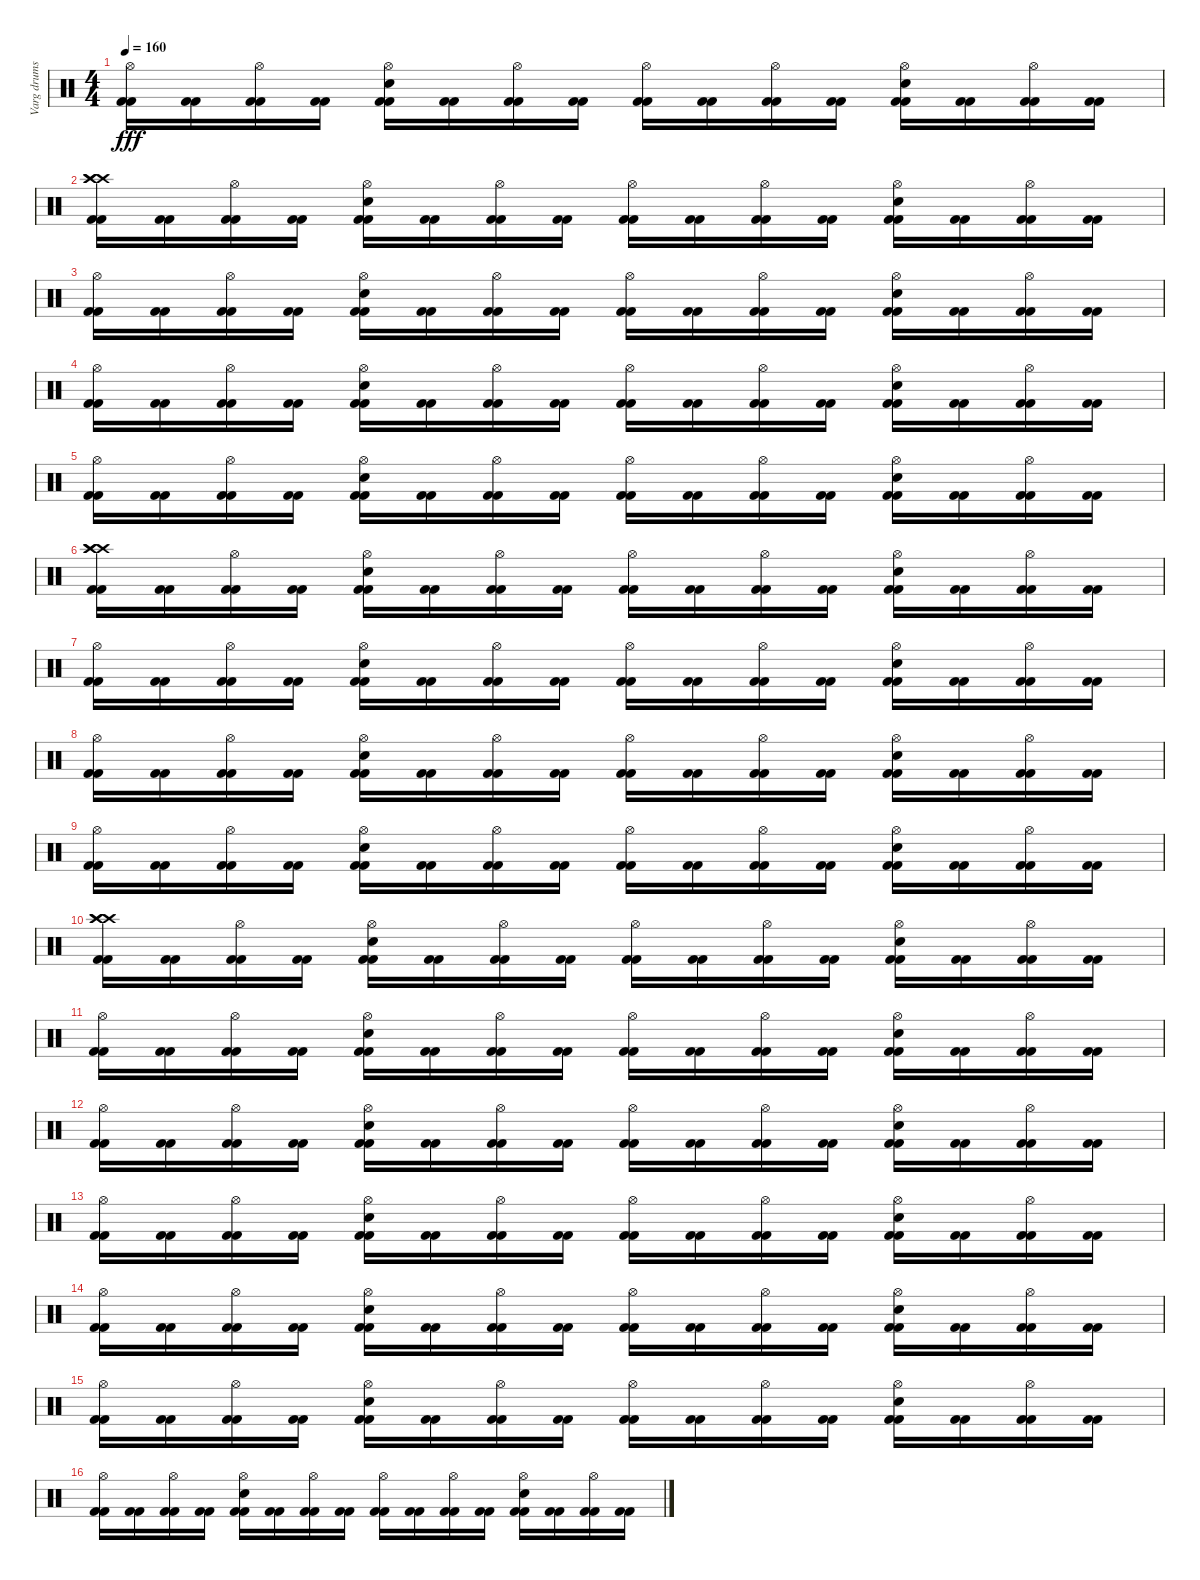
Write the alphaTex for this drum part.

\track ("Varg drums" "Varg drums") {instrument percussion}
\staff {score}
\articulation defaults
\ts (4 4)
\tempo 160
\clef neutral
\ks c
("Hi-Hat (open)" "Kick (hit) 2" "Kick (hit) 2").16{dy fff} ("Kick (hit) 2" "Kick (hit) 2").16 ("Hi-Hat (open)" "Kick (hit) 2" "Kick (hit) 2").16 ("Kick (hit) 2" "Kick (hit) 2").16 ("Hi-Hat (open)" "Electric Snare (hit)" "Kick (hit) 2" "Kick (hit) 2").16 ("Kick (hit) 2" "Kick (hit) 2").16 ("Hi-Hat (open)" "Kick (hit) 2" "Kick (hit) 2").16 ("Kick (hit) 2" "Kick (hit) 2").16 ("Hi-Hat (open)" "Kick (hit) 2" "Kick (hit) 2").16 ("Kick (hit) 2" "Kick (hit) 2").16 ("Hi-Hat (open)" "Kick (hit) 2" "Kick (hit) 2").16 ("Kick (hit) 2" "Kick (hit) 2").16 ("Hi-Hat (open)" "Electric Snare (hit)" "Kick (hit) 2" "Kick (hit) 2").16 ("Kick (hit) 2" "Kick (hit) 2").16 ("Hi-Hat (open)" "Kick (hit) 2" "Kick (hit) 2").16 ("Kick (hit) 2" "Kick (hit) 2").16 |
("Crash high (hit)" "Crash high (hit)" "Crash high (hit)" "Kick (hit) 2" "Kick (hit) 2").16 ("Kick (hit) 2" "Kick (hit) 2").16 ("Hi-Hat (open)" "Kick (hit) 2" "Kick (hit) 2").16 ("Kick (hit) 2" "Kick (hit) 2").16 ("Hi-Hat (open)" "Electric Snare (hit)" "Kick (hit) 2" "Kick (hit) 2").16 ("Kick (hit) 2" "Kick (hit) 2").16 ("Hi-Hat (open)" "Kick (hit) 2" "Kick (hit) 2").16 ("Kick (hit) 2" "Kick (hit) 2").16 ("Hi-Hat (open)" "Kick (hit) 2" "Kick (hit) 2").16 ("Kick (hit) 2" "Kick (hit) 2").16 ("Hi-Hat (open)" "Kick (hit) 2" "Kick (hit) 2").16 ("Kick (hit) 2" "Kick (hit) 2").16 ("Hi-Hat (open)" "Electric Snare (hit)" "Kick (hit) 2" "Kick (hit) 2").16 ("Kick (hit) 2" "Kick (hit) 2").16 ("Hi-Hat (open)" "Kick (hit) 2" "Kick (hit) 2").16 ("Kick (hit) 2" "Kick (hit) 2").16 |
("Hi-Hat (open)" "Kick (hit) 2" "Kick (hit) 2").16 ("Kick (hit) 2" "Kick (hit) 2").16 ("Hi-Hat (open)" "Kick (hit) 2" "Kick (hit) 2").16 ("Kick (hit) 2" "Kick (hit) 2").16 ("Hi-Hat (open)" "Electric Snare (hit)" "Kick (hit) 2" "Kick (hit) 2").16 ("Kick (hit) 2" "Kick (hit) 2").16 ("Hi-Hat (open)" "Kick (hit) 2" "Kick (hit) 2").16 ("Kick (hit) 2" "Kick (hit) 2").16 ("Hi-Hat (open)" "Kick (hit) 2" "Kick (hit) 2").16 ("Kick (hit) 2" "Kick (hit) 2").16 ("Hi-Hat (open)" "Kick (hit) 2" "Kick (hit) 2").16 ("Kick (hit) 2" "Kick (hit) 2").16 ("Hi-Hat (open)" "Electric Snare (hit)" "Kick (hit) 2" "Kick (hit) 2").16 ("Kick (hit) 2" "Kick (hit) 2").16 ("Hi-Hat (open)" "Kick (hit) 2" "Kick (hit) 2").16 ("Kick (hit) 2" "Kick (hit) 2").16 |
("Hi-Hat (open)" "Kick (hit) 2" "Kick (hit) 2").16 ("Kick (hit) 2" "Kick (hit) 2").16 ("Hi-Hat (open)" "Kick (hit) 2" "Kick (hit) 2").16 ("Kick (hit) 2" "Kick (hit) 2").16 ("Hi-Hat (open)" "Electric Snare (hit)" "Kick (hit) 2" "Kick (hit) 2").16 ("Kick (hit) 2" "Kick (hit) 2").16 ("Hi-Hat (open)" "Kick (hit) 2" "Kick (hit) 2").16 ("Kick (hit) 2" "Kick (hit) 2").16 ("Hi-Hat (open)" "Kick (hit) 2" "Kick (hit) 2").16 ("Kick (hit) 2" "Kick (hit) 2").16 ("Hi-Hat (open)" "Kick (hit) 2" "Kick (hit) 2").16 ("Kick (hit) 2" "Kick (hit) 2").16 ("Hi-Hat (open)" "Electric Snare (hit)" "Kick (hit) 2" "Kick (hit) 2").16 ("Kick (hit) 2" "Kick (hit) 2").16 ("Hi-Hat (open)" "Kick (hit) 2" "Kick (hit) 2").16 ("Kick (hit) 2" "Kick (hit) 2").16 |
("Hi-Hat (open)" "Kick (hit) 2" "Kick (hit) 2").16 ("Kick (hit) 2" "Kick (hit) 2").16 ("Hi-Hat (open)" "Kick (hit) 2" "Kick (hit) 2").16 ("Kick (hit) 2" "Kick (hit) 2").16 ("Hi-Hat (open)" "Electric Snare (hit)" "Kick (hit) 2" "Kick (hit) 2").16 ("Kick (hit) 2" "Kick (hit) 2").16 ("Hi-Hat (open)" "Kick (hit) 2" "Kick (hit) 2").16 ("Kick (hit) 2" "Kick (hit) 2").16 ("Hi-Hat (open)" "Kick (hit) 2" "Kick (hit) 2").16 ("Kick (hit) 2" "Kick (hit) 2").16 ("Hi-Hat (open)" "Kick (hit) 2" "Kick (hit) 2").16 ("Kick (hit) 2" "Kick (hit) 2").16 ("Hi-Hat (open)" "Electric Snare (hit)" "Kick (hit) 2" "Kick (hit) 2").16 ("Kick (hit) 2" "Kick (hit) 2").16 ("Hi-Hat (open)" "Kick (hit) 2" "Kick (hit) 2").16 ("Kick (hit) 2" "Kick (hit) 2").16 |
("Crash high (hit)" "Crash high (hit)" "Crash high (hit)" "Kick (hit) 2" "Kick (hit) 2").16 ("Kick (hit) 2" "Kick (hit) 2").16 ("Hi-Hat (open)" "Kick (hit) 2" "Kick (hit) 2").16 ("Kick (hit) 2" "Kick (hit) 2").16 ("Hi-Hat (open)" "Electric Snare (hit)" "Kick (hit) 2" "Kick (hit) 2").16 ("Kick (hit) 2" "Kick (hit) 2").16 ("Hi-Hat (open)" "Kick (hit) 2" "Kick (hit) 2").16 ("Kick (hit) 2" "Kick (hit) 2").16 ("Hi-Hat (open)" "Kick (hit) 2" "Kick (hit) 2").16 ("Kick (hit) 2" "Kick (hit) 2").16 ("Hi-Hat (open)" "Kick (hit) 2" "Kick (hit) 2").16 ("Kick (hit) 2" "Kick (hit) 2").16 ("Hi-Hat (open)" "Electric Snare (hit)" "Kick (hit) 2" "Kick (hit) 2").16 ("Kick (hit) 2" "Kick (hit) 2").16 ("Hi-Hat (open)" "Kick (hit) 2" "Kick (hit) 2").16 ("Kick (hit) 2" "Kick (hit) 2").16 |
("Hi-Hat (open)" "Kick (hit) 2" "Kick (hit) 2").16 ("Kick (hit) 2" "Kick (hit) 2").16 ("Hi-Hat (open)" "Kick (hit) 2" "Kick (hit) 2").16 ("Kick (hit) 2" "Kick (hit) 2").16 ("Hi-Hat (open)" "Electric Snare (hit)" "Kick (hit) 2" "Kick (hit) 2").16 ("Kick (hit) 2" "Kick (hit) 2").16 ("Hi-Hat (open)" "Kick (hit) 2" "Kick (hit) 2").16 ("Kick (hit) 2" "Kick (hit) 2").16 ("Hi-Hat (open)" "Kick (hit) 2" "Kick (hit) 2").16 ("Kick (hit) 2" "Kick (hit) 2").16 ("Hi-Hat (open)" "Kick (hit) 2" "Kick (hit) 2").16 ("Kick (hit) 2" "Kick (hit) 2").16 ("Hi-Hat (open)" "Electric Snare (hit)" "Kick (hit) 2" "Kick (hit) 2").16 ("Kick (hit) 2" "Kick (hit) 2").16 ("Hi-Hat (open)" "Kick (hit) 2" "Kick (hit) 2").16 ("Kick (hit) 2" "Kick (hit) 2").16 |
("Hi-Hat (open)" "Kick (hit) 2" "Kick (hit) 2").16 ("Kick (hit) 2" "Kick (hit) 2").16 ("Hi-Hat (open)" "Kick (hit) 2" "Kick (hit) 2").16 ("Kick (hit) 2" "Kick (hit) 2").16 ("Hi-Hat (open)" "Electric Snare (hit)" "Kick (hit) 2" "Kick (hit) 2").16 ("Kick (hit) 2" "Kick (hit) 2").16 ("Hi-Hat (open)" "Kick (hit) 2" "Kick (hit) 2").16 ("Kick (hit) 2" "Kick (hit) 2").16 ("Hi-Hat (open)" "Kick (hit) 2" "Kick (hit) 2").16 ("Kick (hit) 2" "Kick (hit) 2").16 ("Hi-Hat (open)" "Kick (hit) 2" "Kick (hit) 2").16 ("Kick (hit) 2" "Kick (hit) 2").16 ("Hi-Hat (open)" "Electric Snare (hit)" "Kick (hit) 2" "Kick (hit) 2").16 ("Kick (hit) 2" "Kick (hit) 2").16 ("Hi-Hat (open)" "Kick (hit) 2" "Kick (hit) 2").16 ("Kick (hit) 2" "Kick (hit) 2").16 |
("Hi-Hat (open)" "Kick (hit) 2" "Kick (hit) 2").16 ("Kick (hit) 2" "Kick (hit) 2").16 ("Hi-Hat (open)" "Kick (hit) 2" "Kick (hit) 2").16 ("Kick (hit) 2" "Kick (hit) 2").16 ("Hi-Hat (open)" "Electric Snare (hit)" "Kick (hit) 2" "Kick (hit) 2").16 ("Kick (hit) 2" "Kick (hit) 2").16 ("Hi-Hat (open)" "Kick (hit) 2" "Kick (hit) 2").16 ("Kick (hit) 2" "Kick (hit) 2").16 ("Hi-Hat (open)" "Kick (hit) 2" "Kick (hit) 2").16 ("Kick (hit) 2" "Kick (hit) 2").16 ("Hi-Hat (open)" "Kick (hit) 2" "Kick (hit) 2").16 ("Kick (hit) 2" "Kick (hit) 2").16 ("Hi-Hat (open)" "Electric Snare (hit)" "Kick (hit) 2" "Kick (hit) 2").16 ("Kick (hit) 2" "Kick (hit) 2").16 ("Hi-Hat (open)" "Kick (hit) 2" "Kick (hit) 2").16 ("Kick (hit) 2" "Kick (hit) 2").16 |
("Crash high (hit)" "Crash high (hit)" "Crash high (hit)" "Kick (hit) 2" "Kick (hit) 2").16 ("Kick (hit) 2" "Kick (hit) 2").16 ("Hi-Hat (open)" "Kick (hit) 2" "Kick (hit) 2").16 ("Kick (hit) 2" "Kick (hit) 2").16 ("Hi-Hat (open)" "Electric Snare (hit)" "Kick (hit) 2" "Kick (hit) 2").16 ("Kick (hit) 2" "Kick (hit) 2").16 ("Hi-Hat (open)" "Kick (hit) 2" "Kick (hit) 2").16 ("Kick (hit) 2" "Kick (hit) 2").16 ("Hi-Hat (open)" "Kick (hit) 2" "Kick (hit) 2").16 ("Kick (hit) 2" "Kick (hit) 2").16 ("Hi-Hat (open)" "Kick (hit) 2" "Kick (hit) 2").16 ("Kick (hit) 2" "Kick (hit) 2").16 ("Hi-Hat (open)" "Electric Snare (hit)" "Kick (hit) 2" "Kick (hit) 2").16 ("Kick (hit) 2" "Kick (hit) 2").16 ("Hi-Hat (open)" "Kick (hit) 2" "Kick (hit) 2").16 ("Kick (hit) 2" "Kick (hit) 2").16 |
("Hi-Hat (open)" "Kick (hit) 2" "Kick (hit) 2").16 ("Kick (hit) 2" "Kick (hit) 2").16 ("Hi-Hat (open)" "Kick (hit) 2" "Kick (hit) 2").16 ("Kick (hit) 2" "Kick (hit) 2").16 ("Hi-Hat (open)" "Electric Snare (hit)" "Kick (hit) 2" "Kick (hit) 2").16 ("Kick (hit) 2" "Kick (hit) 2").16 ("Hi-Hat (open)" "Kick (hit) 2" "Kick (hit) 2").16 ("Kick (hit) 2" "Kick (hit) 2").16 ("Hi-Hat (open)" "Kick (hit) 2" "Kick (hit) 2").16 ("Kick (hit) 2" "Kick (hit) 2").16 ("Hi-Hat (open)" "Kick (hit) 2" "Kick (hit) 2").16 ("Kick (hit) 2" "Kick (hit) 2").16 ("Hi-Hat (open)" "Electric Snare (hit)" "Kick (hit) 2" "Kick (hit) 2").16 ("Kick (hit) 2" "Kick (hit) 2").16 ("Hi-Hat (open)" "Kick (hit) 2" "Kick (hit) 2").16 ("Kick (hit) 2" "Kick (hit) 2").16 |
("Hi-Hat (open)" "Kick (hit) 2" "Kick (hit) 2").16 ("Kick (hit) 2" "Kick (hit) 2").16 ("Hi-Hat (open)" "Kick (hit) 2" "Kick (hit) 2").16 ("Kick (hit) 2" "Kick (hit) 2").16 ("Hi-Hat (open)" "Electric Snare (hit)" "Kick (hit) 2" "Kick (hit) 2").16 ("Kick (hit) 2" "Kick (hit) 2").16 ("Hi-Hat (open)" "Kick (hit) 2" "Kick (hit) 2").16 ("Kick (hit) 2" "Kick (hit) 2").16 ("Hi-Hat (open)" "Kick (hit) 2" "Kick (hit) 2").16 ("Kick (hit) 2" "Kick (hit) 2").16 ("Hi-Hat (open)" "Kick (hit) 2" "Kick (hit) 2").16 ("Kick (hit) 2" "Kick (hit) 2").16 ("Hi-Hat (open)" "Electric Snare (hit)" "Kick (hit) 2" "Kick (hit) 2").16 ("Kick (hit) 2" "Kick (hit) 2").16 ("Hi-Hat (open)" "Kick (hit) 2" "Kick (hit) 2").16 ("Kick (hit) 2" "Kick (hit) 2").16 |
("Hi-Hat (open)" "Kick (hit) 2" "Kick (hit) 2").16 ("Kick (hit) 2" "Kick (hit) 2").16 ("Hi-Hat (open)" "Kick (hit) 2" "Kick (hit) 2").16 ("Kick (hit) 2" "Kick (hit) 2").16 ("Hi-Hat (open)" "Electric Snare (hit)" "Kick (hit) 2" "Kick (hit) 2").16 ("Kick (hit) 2" "Kick (hit) 2").16 ("Hi-Hat (open)" "Kick (hit) 2" "Kick (hit) 2").16 ("Kick (hit) 2" "Kick (hit) 2").16 ("Hi-Hat (open)" "Kick (hit) 2" "Kick (hit) 2").16 ("Kick (hit) 2" "Kick (hit) 2").16 ("Hi-Hat (open)" "Kick (hit) 2" "Kick (hit) 2").16 ("Kick (hit) 2" "Kick (hit) 2").16 ("Hi-Hat (open)" "Electric Snare (hit)" "Kick (hit) 2" "Kick (hit) 2").16 ("Kick (hit) 2" "Kick (hit) 2").16 ("Hi-Hat (open)" "Kick (hit) 2" "Kick (hit) 2").16 ("Kick (hit) 2" "Kick (hit) 2").16 |
("Hi-Hat (open)" "Kick (hit) 2" "Kick (hit) 2").16 ("Kick (hit) 2" "Kick (hit) 2").16 ("Hi-Hat (open)" "Kick (hit) 2" "Kick (hit) 2").16 ("Kick (hit) 2" "Kick (hit) 2").16 ("Hi-Hat (open)" "Electric Snare (hit)" "Kick (hit) 2" "Kick (hit) 2").16 ("Kick (hit) 2" "Kick (hit) 2").16 ("Hi-Hat (open)" "Kick (hit) 2" "Kick (hit) 2").16 ("Kick (hit) 2" "Kick (hit) 2").16 ("Hi-Hat (open)" "Kick (hit) 2" "Kick (hit) 2").16 ("Kick (hit) 2" "Kick (hit) 2").16 ("Hi-Hat (open)" "Kick (hit) 2" "Kick (hit) 2").16 ("Kick (hit) 2" "Kick (hit) 2").16 ("Hi-Hat (open)" "Electric Snare (hit)" "Kick (hit) 2" "Kick (hit) 2").16 ("Kick (hit) 2" "Kick (hit) 2").16 ("Hi-Hat (open)" "Kick (hit) 2" "Kick (hit) 2").16 ("Kick (hit) 2" "Kick (hit) 2").16 |
("Hi-Hat (open)" "Kick (hit) 2" "Kick (hit) 2").16 ("Kick (hit) 2" "Kick (hit) 2").16 ("Hi-Hat (open)" "Kick (hit) 2" "Kick (hit) 2").16 ("Kick (hit) 2" "Kick (hit) 2").16 ("Hi-Hat (open)" "Electric Snare (hit)" "Kick (hit) 2" "Kick (hit) 2").16 ("Kick (hit) 2" "Kick (hit) 2").16 ("Hi-Hat (open)" "Kick (hit) 2" "Kick (hit) 2").16 ("Kick (hit) 2" "Kick (hit) 2").16 ("Hi-Hat (open)" "Kick (hit) 2" "Kick (hit) 2").16 ("Kick (hit) 2" "Kick (hit) 2").16 ("Hi-Hat (open)" "Kick (hit) 2" "Kick (hit) 2").16 ("Kick (hit) 2" "Kick (hit) 2").16 ("Hi-Hat (open)" "Electric Snare (hit)" "Kick (hit) 2" "Kick (hit) 2").16 ("Kick (hit) 2" "Kick (hit) 2").16 ("Hi-Hat (open)" "Kick (hit) 2" "Kick (hit) 2").16 ("Kick (hit) 2" "Kick (hit) 2").16 |
("Hi-Hat (open)" "Kick (hit) 2" "Kick (hit) 2").16 ("Kick (hit) 2" "Kick (hit) 2").16 ("Hi-Hat (open)" "Kick (hit) 2" "Kick (hit) 2").16 ("Kick (hit) 2" "Kick (hit) 2").16 ("Hi-Hat (open)" "Electric Snare (hit)" "Kick (hit) 2" "Kick (hit) 2").16 ("Kick (hit) 2" "Kick (hit) 2").16 ("Hi-Hat (open)" "Kick (hit) 2" "Kick (hit) 2").16 ("Kick (hit) 2" "Kick (hit) 2").16 ("Hi-Hat (open)" "Kick (hit) 2" "Kick (hit) 2").16 ("Kick (hit) 2" "Kick (hit) 2").16 ("Hi-Hat (open)" "Kick (hit) 2" "Kick (hit) 2").16 ("Kick (hit) 2" "Kick (hit) 2").16 ("Hi-Hat (open)" "Electric Snare (hit)" "Kick (hit) 2" "Kick (hit) 2").16 ("Kick (hit) 2" "Kick (hit) 2").16 ("Hi-Hat (open)" "Kick (hit) 2" "Kick (hit) 2").16 ("Kick (hit) 2" "Kick (hit) 2").16
